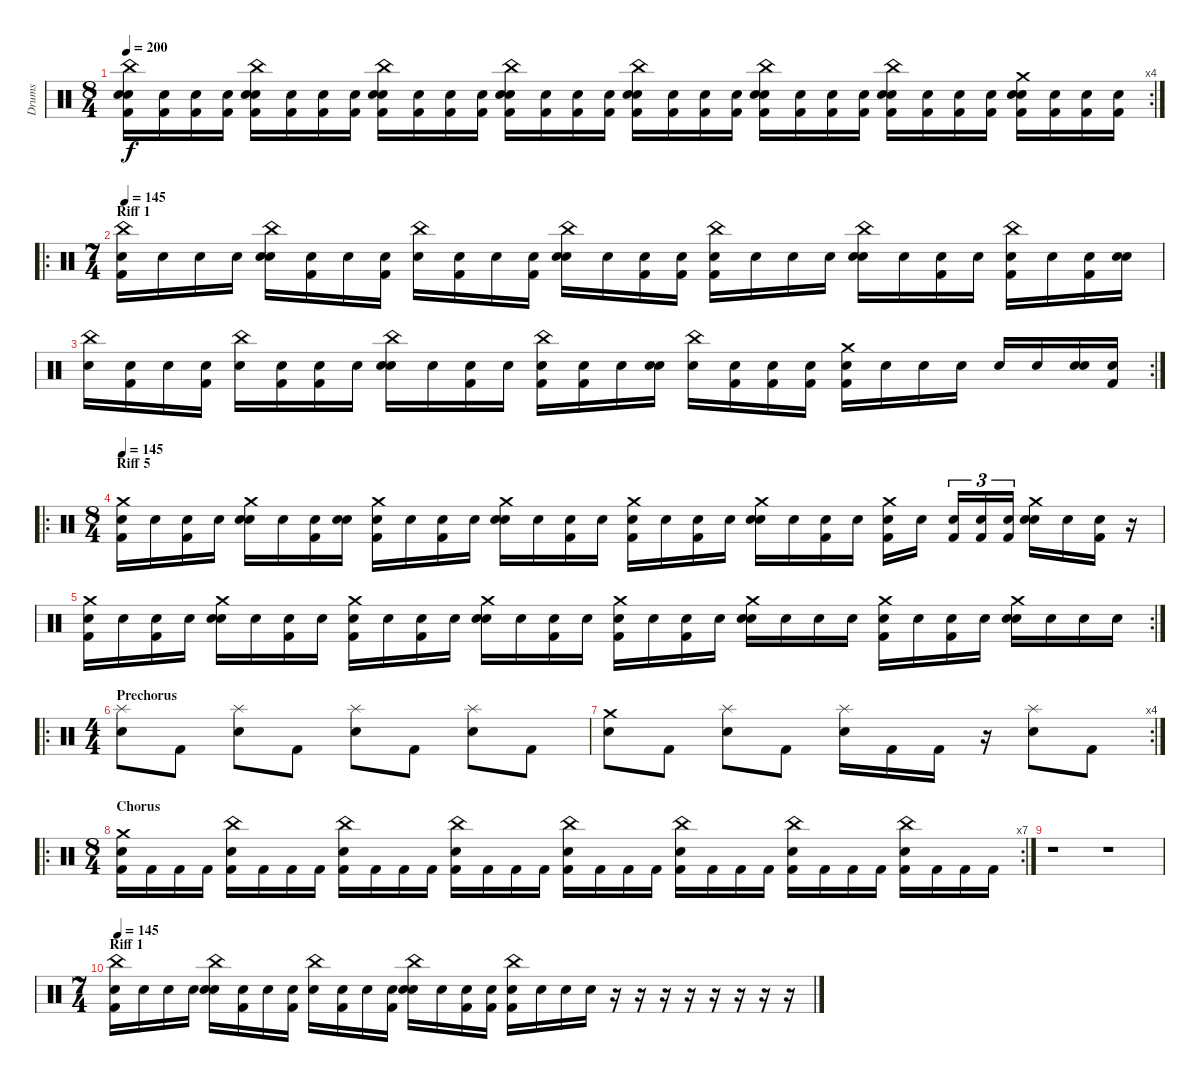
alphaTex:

\track ("Drums" "Drums") {instrument percussion}
\staff {score}
\articulation defaults
\rc 4
\ts (8 4)
\tempo 200
\clef neutral
\ks c
("Snare (hit)" "Kick (hit) 2" "Snare (hit) 2" "China (hit)").16{dy f} ("Snare (hit)" "Kick (hit) 2").16 ("Snare (hit)" "Kick (hit) 2").16 ("Snare (hit)" "Kick (hit) 2").16 ("Snare (hit)" "Kick (hit) 2" "Snare (hit) 2" "China (hit)").16 ("Snare (hit)" "Kick (hit) 2").16 ("Snare (hit)" "Kick (hit) 2").16 ("Snare (hit)" "Kick (hit) 2").16 ("Snare (hit)" "Kick (hit) 2" "Snare (hit) 2" "China (hit)").16 ("Snare (hit)" "Kick (hit) 2").16 ("Snare (hit)" "Kick (hit) 2").16 ("Snare (hit)" "Kick (hit) 2").16 ("Snare (hit)" "Kick (hit) 2" "Snare (hit) 2" "China (hit)").16 ("Snare (hit)" "Kick (hit) 2").16 ("Snare (hit)" "Kick (hit) 2").16 ("Snare (hit)" "Kick (hit) 2").16 ("Snare (hit)" "Kick (hit) 2" "Snare (hit) 2" "China (hit)").16 ("Snare (hit)" "Kick (hit) 2").16 ("Snare (hit)" "Kick (hit) 2").16 ("Snare (hit)" "Kick (hit) 2").16 ("Snare (hit)" "Kick (hit) 2" "Snare (hit) 2" "China (hit)").16 ("Snare (hit)" "Kick (hit) 2").16 ("Snare (hit)" "Kick (hit) 2").16 ("Snare (hit)" "Kick (hit) 2").16 ("Snare (hit)" "Kick (hit) 2" "Snare (hit) 2" "China (hit)").16 ("Snare (hit)" "Kick (hit) 2").16 ("Snare (hit)" "Kick (hit) 2").16 ("Snare (hit)" "Kick (hit) 2").16 ("Snare (hit)" "Kick (hit) 2" "Snare (hit) 2" "Crash medium (hit)").16 ("Snare (hit)" "Kick (hit) 2").16 ("Snare (hit)" "Kick (hit) 2").16 ("Snare (hit)" "Kick (hit) 2").16 |
\ro
\ts (7 4)
\section ("" "Riff 1")
\tempo 145
("Snare (hit)" "Kick (hit) 2" "China (hit)").16 "Snare (hit)".16 "Snare (hit)".16 "Snare (hit)".16 ("Snare (hit)" "Snare (hit) 2" "China (hit)").16 ("Snare (hit)" "Kick (hit) 2").16 "Snare (hit)".16 ("Snare (hit)" "Kick (hit) 2").16 ("Snare (hit)" "China (hit)").16 ("Snare (hit)" "Kick (hit) 2").16 "Snare (hit)".16 ("Snare (hit)" "Kick (hit) 2").16 ("Snare (hit)" "Snare (hit) 2" "China (hit)").16 "Snare (hit)".16 ("Snare (hit)" "Kick (hit) 2").16 ("Snare (hit)" "Kick (hit) 2").16 ("Snare (hit)" "Kick (hit) 2" "China (hit)").16 "Snare (hit)".16 "Snare (hit)".16 "Snare (hit)".16 ("Snare (hit)" "Snare (hit) 2" "China (hit)").16 "Snare (hit)".16 ("Snare (hit)" "Kick (hit) 2").16 "Snare (hit)".16 ("Snare (hit)" "Kick (hit) 2" "China (hit)").16 "Snare (hit)".16 ("Snare (hit)" "Kick (hit) 2").16 ("Snare (hit)" "Snare (hit) 2").16 |
\rc 2
("Snare (hit)" "China (hit)").16 ("Snare (hit)" "Kick (hit) 2").16 "Snare (hit)".16 ("Snare (hit)" "Kick (hit) 2").16 ("Snare (hit)" "China (hit)").16 ("Snare (hit)" "Kick (hit) 2").16 ("Snare (hit)" "Kick (hit) 2").16 "Snare (hit)".16 ("Snare (hit)" "Snare (hit) 2" "China (hit)").16 "Snare (hit)".16 ("Snare (hit)" "Kick (hit) 2").16 "Snare (hit)".16 ("Snare (hit)" "Kick (hit) 2" "China (hit)").16 ("Snare (hit)" "Kick (hit) 2").16 "Snare (hit)".16 ("Snare (hit)" "Snare (hit) 2").16 ("Snare (hit)" "China (hit)").16 ("Snare (hit)" "Kick (hit) 2").16 ("Snare (hit)" "Kick (hit) 2").16 ("Snare (hit)" "Kick (hit) 2").16 ("Snare (hit)" "Kick (hit) 2" "Crash medium (hit)").16 "Snare (hit)".16 "Snare (hit)".16 "Snare (hit)".16 "Snare (hit)".16 "Snare (hit)".16 ("Snare (hit)" "Snare (hit) 2").16 ("Snare (hit)" "Kick (hit) 2").16 |
\ro
\ts (8 4)
\section ("" "Riff 5")
\tempo 145
("Snare (hit)" "Kick (hit) 2" "Crash medium (hit)").16 "Snare (hit)".16 ("Snare (hit)" "Kick (hit) 2").16 "Snare (hit)".16 ("Snare (hit)" "Snare (hit) 2" "Crash medium (hit)").16 "Snare (hit)".16 ("Snare (hit)" "Kick (hit) 2").16 ("Snare (hit)" "Snare (hit) 2").16 ("Snare (hit)" "Kick (hit) 2" "Crash medium (hit)").16 "Snare (hit)".16 ("Snare (hit)" "Kick (hit) 2").16 "Snare (hit)".16 ("Snare (hit)" "Snare (hit) 2" "Crash medium (hit)").16 "Snare (hit)".16 ("Snare (hit)" "Kick (hit) 2").16 "Snare (hit)".16 ("Snare (hit)" "Kick (hit) 2" "Crash medium (hit)").16 "Snare (hit)".16 ("Snare (hit)" "Kick (hit) 2").16 "Snare (hit)".16 ("Snare (hit)" "Snare (hit) 2" "Crash medium (hit)").16 "Snare (hit)".16 ("Snare (hit)" "Kick (hit) 2").16 "Snare (hit)".16 ("Snare (hit)" "Kick (hit) 2" "Crash medium (hit)").16 "Snare (hit)".16 ("Snare (hit)" "Kick (hit) 2").16{tu (3 2)} ("Snare (hit)" "Kick (hit) 2").16{tu (3 2)} ("Snare (hit)" "Kick (hit) 2").16{tu (3 2)} ("Snare (hit)" "Snare (hit) 2" "Crash medium (hit)").16 "Snare (hit)".16 ("Snare (hit)" "Kick (hit) 2").16 r.16 |
\rc 2
("Snare (hit)" "Kick (hit) 2" "Crash medium (hit)").16 "Snare (hit)".16 ("Snare (hit)" "Kick (hit) 2").16 "Snare (hit)".16 ("Snare (hit)" "Snare (hit) 2" "Crash medium (hit)").16 "Snare (hit)".16 ("Snare (hit)" "Kick (hit) 2").16 "Snare (hit)".16 ("Snare (hit)" "Kick (hit) 2" "Crash medium (hit)").16 "Snare (hit)".16 ("Snare (hit)" "Kick (hit) 2").16 "Snare (hit)".16 ("Snare (hit)" "Snare (hit) 2" "Crash medium (hit)").16 "Snare (hit)".16 ("Snare (hit)" "Kick (hit) 2").16 "Snare (hit)".16 ("Snare (hit)" "Kick (hit) 2" "Crash medium (hit)").16 "Snare (hit)".16 ("Snare (hit)" "Kick (hit) 2").16 "Snare (hit)".16 ("Snare (hit)" "Snare (hit) 2" "Crash medium (hit)").16 "Snare (hit)".16 "Snare (hit)".16 "Snare (hit)".16 ("Snare (hit)" "Kick (hit) 2" "Crash medium (hit)").16 "Snare (hit)".16 ("Snare (hit)" "Kick (hit) 2").16 "Snare (hit)".16 ("Snare (hit)" "Snare (hit) 2" "Crash medium (hit)").16 "Snare (hit)".16 "Snare (hit)".16 "Snare (hit)".16 |
\ro
\ts (4 4)
\section ("" "Prechorus")
("Splash (hit)" "Snare (hit) 2").8 "Kick (hit) 2".8 ("Splash (hit)" "Snare (hit) 2").8 "Kick (hit) 2".8 ("Splash (hit)" "Snare (hit) 2").8 "Kick (hit) 2".8 ("Splash (hit)" "Snare (hit) 2").8 "Kick (hit) 2".8 |
\rc 4
("Crash medium (hit)" "Snare (hit) 2").8 "Kick (hit) 2".8 ("Splash (hit)" "Snare (hit) 2").8 "Kick (hit) 2".8 ("Splash (hit)" "Snare (hit) 2").16 "Kick (hit) 2".16 "Kick (hit) 2".16 r.16 ("Splash (hit)" "Snare (hit) 2").8 "Kick (hit) 2".8 |
\ro
\rc 7
\ts (8 4)
\section ("" "Chorus")
("Kick (hit) 2" "Snare (hit) 2" "Crash medium (hit)").16 "Kick (hit) 2".16 "Kick (hit) 2".16 "Kick (hit) 2".16 ("Kick (hit) 2" "Snare (hit) 2" "China (hit)").16 "Kick (hit) 2".16 "Kick (hit) 2".16 "Kick (hit) 2".16 ("Kick (hit) 2" "Snare (hit) 2" "China (hit)").16 "Kick (hit) 2".16 "Kick (hit) 2".16 "Kick (hit) 2".16 ("Kick (hit) 2" "Snare (hit) 2" "China (hit)").16 "Kick (hit) 2".16 "Kick (hit) 2".16 "Kick (hit) 2".16 ("Kick (hit) 2" "Snare (hit) 2" "China (hit)").16 "Kick (hit) 2".16 "Kick (hit) 2".16 "Kick (hit) 2".16 ("Kick (hit) 2" "Snare (hit) 2" "China (hit)").16 "Kick (hit) 2".16 "Kick (hit) 2".16 "Kick (hit) 2".16 ("Kick (hit) 2" "Snare (hit) 2" "China (hit)").16 "Kick (hit) 2".16 "Kick (hit) 2".16 "Kick (hit) 2".16 ("Kick (hit) 2" "Snare (hit) 2" "China (hit)").16 "Kick (hit) 2".16 "Kick (hit) 2".16 "Kick (hit) 2".16 |
r.1 r.1 |
\ts (7 4)
\section ("" "Riff 1")
\tempo 145
("Snare (hit)" "Kick (hit) 2" "China (hit)").16 "Snare (hit)".16 "Snare (hit)".16 "Snare (hit)".16 ("Snare (hit)" "Snare (hit) 2" "China (hit)").16 ("Snare (hit)" "Kick (hit) 2").16 "Snare (hit)".16 ("Snare (hit)" "Kick (hit) 2").16 ("Snare (hit)" "China (hit)").16 ("Snare (hit)" "Kick (hit) 2").16 "Snare (hit)".16 ("Snare (hit)" "Kick (hit) 2").16 ("Snare (hit)" "Snare (hit) 2" "China (hit)").16 "Snare (hit)".16 ("Snare (hit)" "Kick (hit) 2").16 ("Snare (hit)" "Kick (hit) 2").16 ("Snare (hit)" "Kick (hit) 2" "China (hit)").16 "Snare (hit)".16 "Snare (hit)".16 "Snare (hit)".16 r.16 r.16 r.16 r.16 r.16 r.16 r.16 r.16
